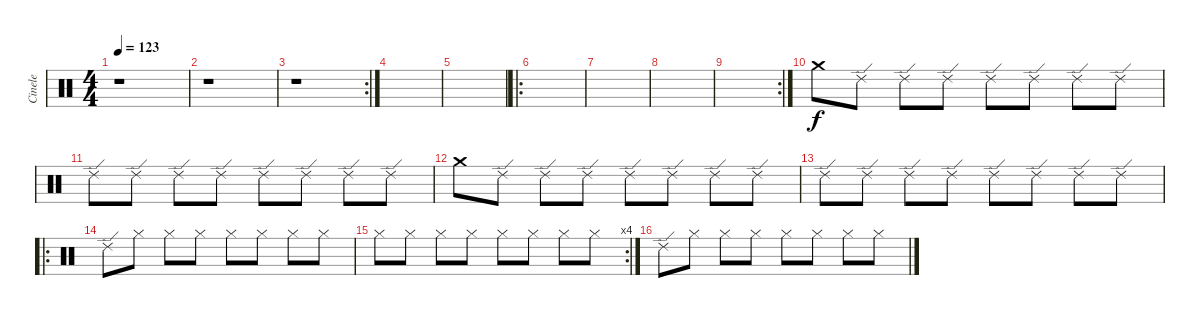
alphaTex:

\track ("Cinele" "Cinele") {instrument percussion}
\staff {score}
\articulation defaults
\ts (4 4)
\tempo 123
\clef neutral
\ks c
r.1{dy f} |
r.1 |
\rc 2
r.1 |
|
|
\ro
|
|
|
\rc 2
|
"Crash medium (hit)".8 "Ride (edge) 2".8 "Ride (edge) 2".8 "Ride (edge) 2".8 "Ride (edge) 2".8 "Ride (edge) 2".8 "Ride (edge) 2".8 "Ride (edge) 2".8 |
"Ride (edge) 2".8 "Ride (edge) 2".8 "Ride (edge) 2".8 "Ride (edge) 2".8 "Ride (edge) 2".8 "Ride (edge) 2".8 "Ride (edge) 2".8 "Ride (edge) 2".8 |
"Crash medium (hit)".8 "Ride (edge) 2".8 "Ride (edge) 2".8 "Ride (edge) 2".8 "Ride (edge) 2".8 "Ride (edge) 2".8 "Ride (edge) 2".8 "Ride (edge) 2".8 |
"Ride (edge) 2".8 "Ride (edge) 2".8 "Ride (edge) 2".8 "Ride (edge) 2".8 "Ride (edge) 2".8 "Ride (edge) 2".8 "Ride (edge) 2".8 "Ride (edge) 2".8 |
\ro "Ride (edge) 2".8 "Hi-Hat (closed)".8 "Hi-Hat (closed)".8 "Hi-Hat (closed)".8 "Hi-Hat (closed)".8 "Hi-Hat (closed)".8 "Hi-Hat (closed)".8 "Hi-Hat (closed)".8
|
\rc 4 "Hi-Hat (closed)".8 "Hi-Hat (closed)".8 "Hi-Hat (closed)".8 "Hi-Hat (closed)".8 "Hi-Hat (closed)".8 "Hi-Hat (closed)".8 "Hi-Hat (closed)".8 "Hi-Hat (closed)".8
|
"Ride (edge) 2".8 "Hi-Hat (closed)".8 "Hi-Hat (closed)".8 "Hi-Hat (closed)".8 "Hi-Hat (closed)".8 "Hi-Hat (closed)".8 "Hi-Hat (closed)".8 "Hi-Hat (closed)".8
